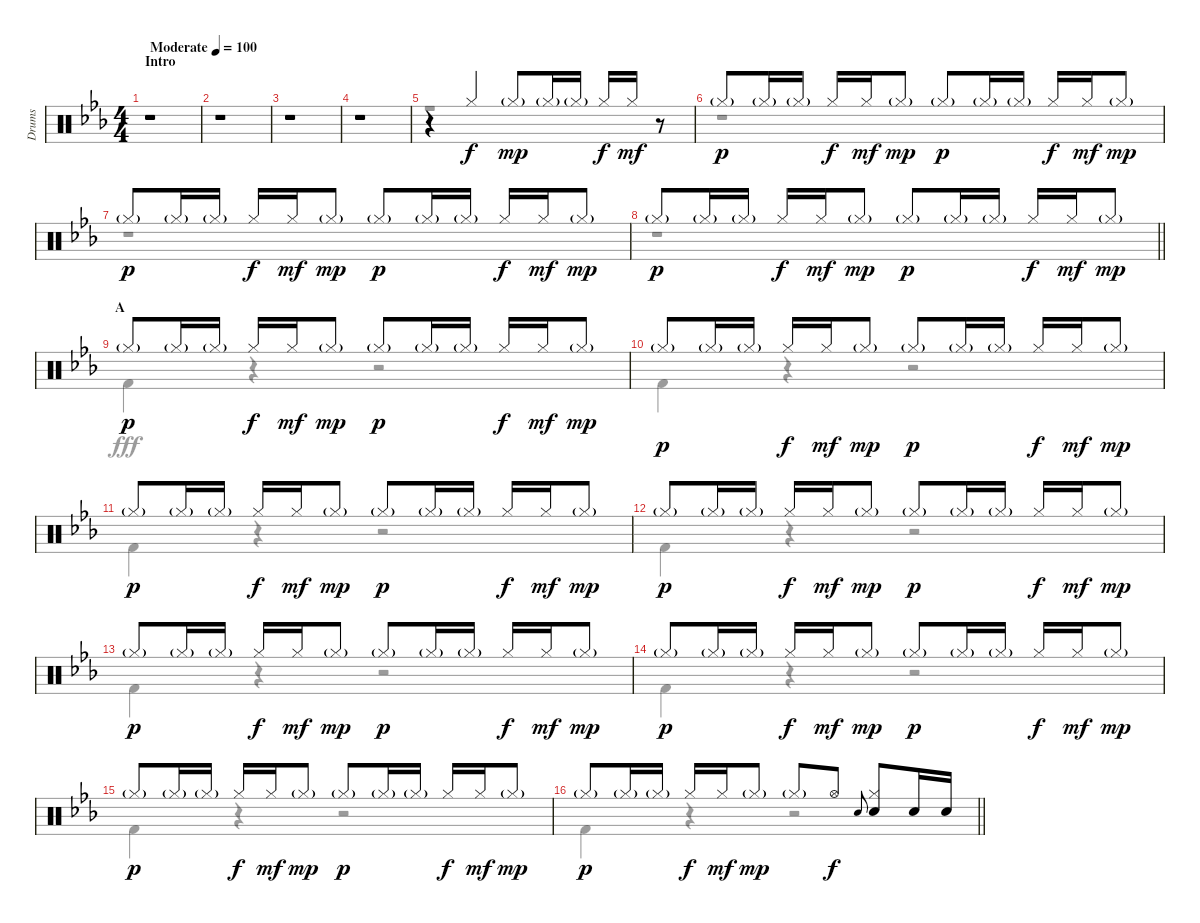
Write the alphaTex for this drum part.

\track ("Drums" "Drums") {instrument percussion}
\staff {score}
\articulation defaults
\voice
\ts (4 4)
\section ("" "Intro")
\tempo (100 "Moderate")
\clef neutral
\ks eb
r.1{dy f} |
r.1 |
r.1 |
r.1 |
r.4 "Hi-Hat (closed)".4 "Hi-Hat (closed)"{g}.8{dy mp} "Hi-Hat (closed)"{g}.16 "Hi-Hat (closed)"{g}.16 "Hi-Hat (closed)".16{dy f} "Hi-Hat (closed)".16{dy mf} r.8 |
"Hi-Hat (closed)"{g}.8{dy p} "Hi-Hat (closed)"{g}.16 "Hi-Hat (closed)"{g}.16 "Hi-Hat (closed)".16{dy f} "Hi-Hat (closed)".16{dy mf} "Hi-Hat (closed)"{g}.8{dy mp} "Hi-Hat (closed)"{g}.8{dy p} "Hi-Hat (closed)"{g}.16 "Hi-Hat (closed)"{g}.16 "Hi-Hat (closed)".16{dy f} "Hi-Hat (closed)".16{dy mf} "Hi-Hat (closed)"{g}.8{dy mp} |
"Hi-Hat (closed)"{g}.8{dy p} "Hi-Hat (closed)"{g}.16 "Hi-Hat (closed)"{g}.16 "Hi-Hat (closed)".16{dy f} "Hi-Hat (closed)".16{dy mf} "Hi-Hat (closed)"{g}.8{dy mp} "Hi-Hat (closed)"{g}.8{dy p} "Hi-Hat (closed)"{g}.16 "Hi-Hat (closed)"{g}.16 "Hi-Hat (closed)".16{dy f} "Hi-Hat (closed)".16{dy mf} "Hi-Hat (closed)"{g}.8{dy mp} |
\barLineRight lightlight "Hi-Hat (closed)"{g}.8{dy p} "Hi-Hat (closed)"{g}.16 "Hi-Hat (closed)"{g}.16 "Hi-Hat (closed)".16{dy f} "Hi-Hat (closed)".16{dy mf} "Hi-Hat (closed)"{g}.8{dy mp} "Hi-Hat (closed)"{g}.8{dy p} "Hi-Hat (closed)"{g}.16 "Hi-Hat (closed)"{g}.16 "Hi-Hat (closed)".16{dy f} "Hi-Hat (closed)".16{dy mf} "Hi-Hat (closed)"{g}.8{dy mp}
|
\section ("" "A")
"Hi-Hat (closed)"{g}.8{dy p} "Hi-Hat (closed)"{g}.16 "Hi-Hat (closed)"{g}.16 "Hi-Hat (closed)".16{dy f} "Hi-Hat (closed)".16{dy mf} "Hi-Hat (closed)"{g}.8{dy mp} "Hi-Hat (closed)"{g}.8{dy p} "Hi-Hat (closed)"{g}.16 "Hi-Hat (closed)"{g}.16 "Hi-Hat (closed)".16{dy f} "Hi-Hat (closed)".16{dy mf} "Hi-Hat (closed)"{g}.8{dy mp} |
"Hi-Hat (closed)"{g}.8{dy p} "Hi-Hat (closed)"{g}.16 "Hi-Hat (closed)"{g}.16 "Hi-Hat (closed)".16{dy f} "Hi-Hat (closed)".16{dy mf} "Hi-Hat (closed)"{g}.8{dy mp} "Hi-Hat (closed)"{g}.8{dy p} "Hi-Hat (closed)"{g}.16 "Hi-Hat (closed)"{g}.16 "Hi-Hat (closed)".16{dy f} "Hi-Hat (closed)".16{dy mf} "Hi-Hat (closed)"{g}.8{dy mp} |
"Hi-Hat (closed)"{g}.8{dy p} "Hi-Hat (closed)"{g}.16 "Hi-Hat (closed)"{g}.16 "Hi-Hat (closed)".16{dy f} "Hi-Hat (closed)".16{dy mf} "Hi-Hat (closed)"{g}.8{dy mp} "Hi-Hat (closed)"{g}.8{dy p} "Hi-Hat (closed)"{g}.16 "Hi-Hat (closed)"{g}.16 "Hi-Hat (closed)".16{dy f} "Hi-Hat (closed)".16{dy mf} "Hi-Hat (closed)"{g}.8{dy mp} |
"Hi-Hat (closed)"{g}.8{dy p} "Hi-Hat (closed)"{g}.16 "Hi-Hat (closed)"{g}.16 "Hi-Hat (closed)".16{dy f} "Hi-Hat (closed)".16{dy mf} "Hi-Hat (closed)"{g}.8{dy mp} "Hi-Hat (closed)"{g}.8{dy p} "Hi-Hat (closed)"{g}.16 "Hi-Hat (closed)"{g}.16 "Hi-Hat (closed)".16{dy f} "Hi-Hat (closed)".16{dy mf} "Hi-Hat (closed)"{g}.8{dy mp} |
"Hi-Hat (closed)"{g}.8{dy p} "Hi-Hat (closed)"{g}.16 "Hi-Hat (closed)"{g}.16 "Hi-Hat (closed)".16{dy f} "Hi-Hat (closed)".16{dy mf} "Hi-Hat (closed)"{g}.8{dy mp} "Hi-Hat (closed)"{g}.8{dy p} "Hi-Hat (closed)"{g}.16 "Hi-Hat (closed)"{g}.16 "Hi-Hat (closed)".16{dy f} "Hi-Hat (closed)".16{dy mf} "Hi-Hat (closed)"{g}.8{dy mp} |
"Hi-Hat (closed)"{g}.8{dy p} "Hi-Hat (closed)"{g}.16 "Hi-Hat (closed)"{g}.16 "Hi-Hat (closed)".16{dy f} "Hi-Hat (closed)".16{dy mf} "Hi-Hat (closed)"{g}.8{dy mp} "Hi-Hat (closed)"{g}.8{dy p} "Hi-Hat (closed)"{g}.16 "Hi-Hat (closed)"{g}.16 "Hi-Hat (closed)".16{dy f} "Hi-Hat (closed)".16{dy mf} "Hi-Hat (closed)"{g}.8{dy mp} |
"Hi-Hat (closed)"{g}.8{dy p} "Hi-Hat (closed)"{g}.16 "Hi-Hat (closed)"{g}.16 "Hi-Hat (closed)".16{dy f} "Hi-Hat (closed)".16{dy mf} "Hi-Hat (closed)"{g}.8{dy mp} "Hi-Hat (closed)"{g}.8{dy p} "Hi-Hat (closed)"{g}.16 "Hi-Hat (closed)"{g}.16 "Hi-Hat (closed)".16{dy f} "Hi-Hat (closed)".16{dy mf} "Hi-Hat (closed)"{g}.8{dy mp} |
\barLineRight lightlight "Hi-Hat (closed)"{g}.8{dy p} "Hi-Hat (closed)"{g}.16 "Hi-Hat (closed)"{g}.16 "Hi-Hat (closed)".16{dy f} "Hi-Hat (closed)".16{dy mf} "Hi-Hat (closed)"{g}.8{dy mp} "Hi-Hat (closed)"{g}.8 "Hi-Hat (open)".8{dy f} "Snare (hit) 2".8{gr onbeat}
("Hi-Hat (closed)" "Snare (hit) 2").8 "Snare (hit) 2".16 "Snare (hit) 2".16
\voice
\clef neutral
\ottava regular
\simile none
\ks eb
r.1{dy fff} |
r.1 |
r.1 |
r.1 |
r.1 |
r.1 |
r.1 |
\barLineRight lightlight
r.1 |
"Kick (hit) 2".4 r.4 r.2 |
"Kick (hit) 2".4 r.4 r.2 |
"Kick (hit) 2".4 r.4 r.2 |
"Kick (hit) 2".4 r.4 r.2 |
"Kick (hit) 2".4 r.4 r.2 |
"Kick (hit) 2".4 r.4 r.2 |
"Kick (hit) 2".4 r.4 r.2 |
\barLineRight lightlight "Kick (hit) 2".4
r.4 r.2
